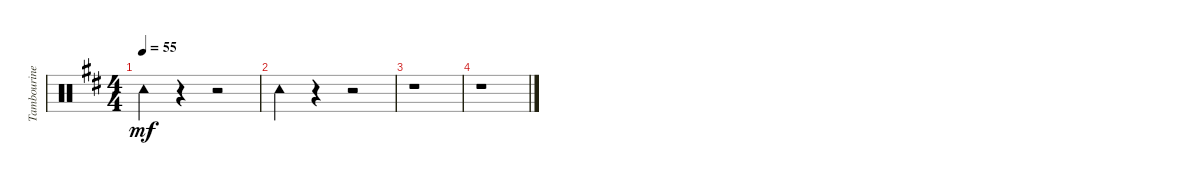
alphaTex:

\track ("Tambourine" "Tambourine") {instrument percussion}
\staff {score}
\articulation defaults
\ts (4 4)
\tempo 55
\clef neutral
\ks d "Tambourine (hit)".4{dy mf}
r.4 r.2 |
"Tambourine (hit)".4 r.4 r.2 |
r.1 |
r.1
